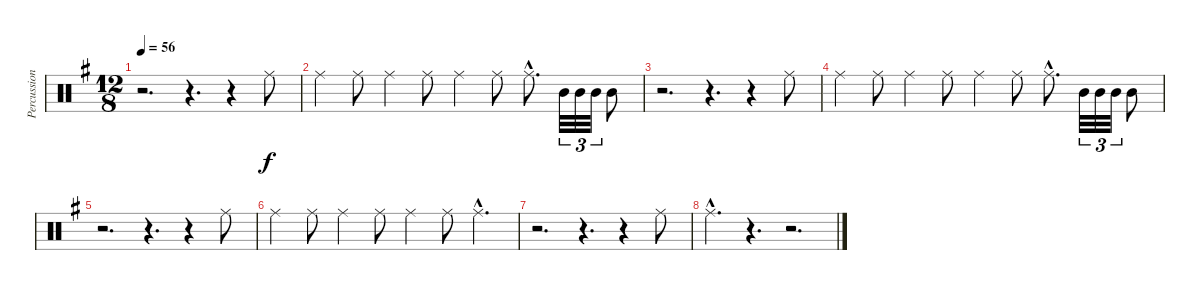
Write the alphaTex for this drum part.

\track ("Percussions" "Percussion") {instrument percussion}
\staff {score}
\articulation defaults
\ts (12 8)
\tempo 56
\clef neutral
\ks eminor
r.2{d dy f} r.4{d} r.4 "Ride (middle)".8 |
"Ride (middle)".4 "Ride (middle)".8 "Ride (middle)".4 "Ride (middle)".8 "Ride (middle)".4 "Ride (middle)".8 "Ride (middle)"{hac}.8{d} "Mid Tom (hit)".32{tu (3 2)} "Mid Tom (hit)".32{tu (3 2)} "Mid Tom (hit)".32{tu (3 2)} "Mid Tom (hit)".8 |
r.2{d} r.4{d} r.4 "Ride (middle)".8 |
"Ride (middle)".4 "Ride (middle)".8 "Ride (middle)".4 "Ride (middle)".8 "Ride (middle)".4 "Ride (middle)".8 "Ride (middle)"{hac}.8{d} "Mid Tom (hit)".32{tu (3 2)} "Mid Tom (hit)".32{tu (3 2)} "Mid Tom (hit)".32{tu (3 2)} "Mid Tom (hit)".8 |
r.2{d} r.4{d} r.4 "Ride (middle)".8 |
"Ride (middle)".4 "Ride (middle)".8 "Ride (middle)".4 "Ride (middle)".8 "Ride (middle)".4 "Ride (middle)".8 "Ride (middle)"{hac}.4{d} |
r.2{d} r.4{d} r.4 "Ride (middle)".8 |
"Ride (middle)"{hac}.4{d} r.4{d} r.2{d}
